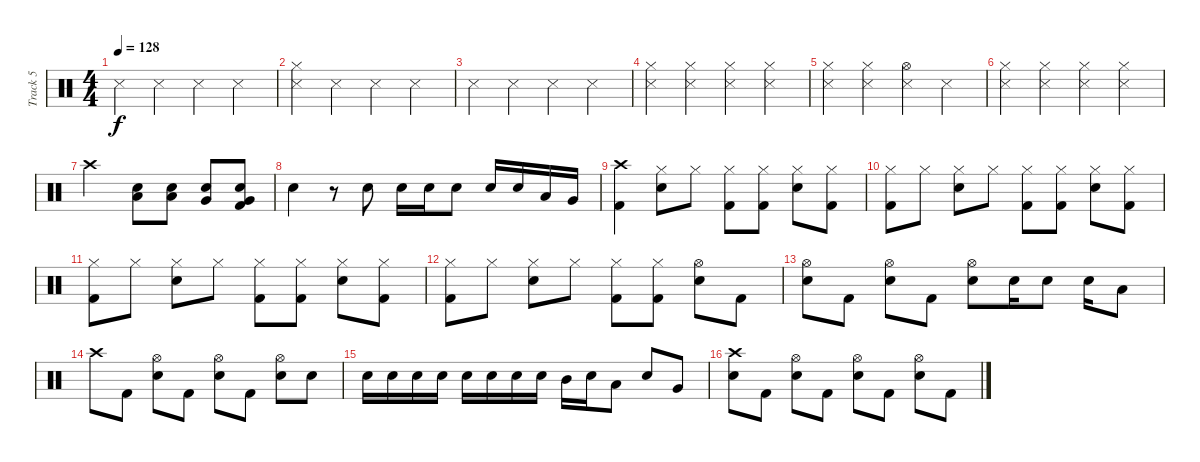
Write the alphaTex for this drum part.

\track ("Track 5" "Track 5") {instrument percussion}
\staff {score}
\articulation defaults
\ts (4 4)
\tempo 128
\clef neutral
\ks c "Snare (side stick) 3".4{dy f} "Snare (side stick) 3".4 "Snare (side stick) 3".4 "Snare (side stick) 3".4
|
("Hi-Hat (closed)" "Snare (side stick) 3").4 "Snare (side stick) 3".4 "Snare (side stick) 3".4 "Snare (side stick) 3".4 |
"Snare (side stick) 3".4 "Snare (side stick) 3".4 "Snare (side stick) 3".4 "Snare (side stick) 3".4 |
("Hi-Hat (closed)" "Snare (side stick) 3").4 ("Hi-Hat (closed)" "Snare (side stick) 3").4 ("Hi-Hat (closed)" "Snare (side stick) 3").4 ("Hi-Hat (closed)" "Snare (side stick) 3").4 |
("Hi-Hat (closed)" "Snare (side stick) 3").4 ("Hi-Hat (closed)" "Snare (side stick) 3").4 ("Hi-Hat (open)" "Snare (side stick) 3").4 "Snare (side stick) 3".4 |
("Hi-Hat (closed)" "Snare (side stick) 3").4 ("Hi-Hat (closed)" "Snare (side stick) 3").4 ("Hi-Hat (closed)" "Snare (side stick) 3").4 ("Hi-Hat (closed)" "Snare (side stick) 3").4 |
"Crash high (hit)".2 ("Electric Snare (hit)" "Low Tom (hit)").8 ("Electric Snare (hit)" "Low Tom (hit)").8 ("Electric Snare (hit)" "Very Low Tom (hit)").8 ("Electric Snare (hit)" "Very Low Tom (hit)" "Kick (hit) 2").8 |
"Electric Snare (hit)".4 r.8 "Electric Snare (hit)".8 "Electric Snare (hit)".16 "Electric Snare (hit)".16 "Electric Snare (hit)".8 "Electric Snare (hit)".16 "Electric Snare (hit)".16 "Low Tom (hit)".16 "Very Low Tom (hit)".16 |
("Crash high (hit)" "Kick (hit) 2").4 ("Hi-Hat (closed)" "Electric Snare (hit)").8 "Hi-Hat (closed)".8 ("Hi-Hat (closed)" "Kick (hit) 2").8 ("Hi-Hat (closed)" "Kick (hit) 2").8 ("Hi-Hat (closed)" "Electric Snare (hit)").8 ("Hi-Hat (closed)" "Kick (hit) 2").8 |
("Hi-Hat (closed)" "Kick (hit) 2").8 "Hi-Hat (closed)".8 ("Hi-Hat (closed)" "Electric Snare (hit)").8 "Hi-Hat (closed)".8 ("Hi-Hat (closed)" "Kick (hit) 2").8 ("Hi-Hat (closed)" "Kick (hit) 2").8 ("Hi-Hat (closed)" "Electric Snare (hit)").8 ("Hi-Hat (closed)" "Kick (hit) 2").8 |
("Hi-Hat (closed)" "Kick (hit) 2").8 "Hi-Hat (closed)".8 ("Hi-Hat (closed)" "Electric Snare (hit)").8 "Hi-Hat (closed)".8 ("Hi-Hat (closed)" "Kick (hit) 2").8 ("Hi-Hat (closed)" "Kick (hit) 2").8 ("Hi-Hat (closed)" "Electric Snare (hit)").8 ("Hi-Hat (closed)" "Kick (hit) 2").8 |
("Hi-Hat (closed)" "Kick (hit) 2").8 "Hi-Hat (closed)".8 ("Hi-Hat (closed)" "Electric Snare (hit)").8 "Hi-Hat (closed)".8 ("Hi-Hat (closed)" "Kick (hit) 2").8 ("Hi-Hat (closed)" "Kick (hit) 2").8 ("Hi-Hat (open)" "Electric Snare (hit)").8 "Kick (hit) 2".8 |
("Hi-Hat (open)" "Electric Snare (hit)").8 "Kick (hit) 2".8 ("Hi-Hat (open)" "Electric Snare (hit)").8 "Kick (hit) 2".8 ("Hi-Hat (open)" "Electric Snare (hit)").8 "Electric Snare (hit)".16 "Electric Snare (hit)".8 "Electric Snare (hit)".16 "Low Tom (hit)".8 |
"Crash high (hit)".8 "Kick (hit) 2".8 ("Hi-Hat (open)" "Electric Snare (hit)").8 "Kick (hit) 2".8 ("Hi-Hat (open)" "Electric Snare (hit)").8 "Kick (hit) 2".8 ("Hi-Hat (open)" "Electric Snare (hit)").8 "Electric Snare (hit)".8 |
"Electric Snare (hit)".16 "Electric Snare (hit)".16 "Electric Snare (hit)".16 "Electric Snare (hit)".16 "Electric Snare (hit)".16 "Electric Snare (hit)".16 "Electric Snare (hit)".16 "Electric Snare (hit)".16 "Mid Tom (hit)".16 "Electric Snare (hit)".16 "Low Tom (hit)".8 "Electric Snare (hit)".8 "Very Low Tom (hit)".8 |
("Crash high (hit)" "Electric Snare (hit)").8 "Kick (hit) 2".8 ("Hi-Hat (open)" "Electric Snare (hit)").8 "Kick (hit) 2".8 ("Hi-Hat (open)" "Electric Snare (hit)").8 "Kick (hit) 2".8 ("Hi-Hat (open)" "Electric Snare (hit)").8 "Kick (hit) 2".8
